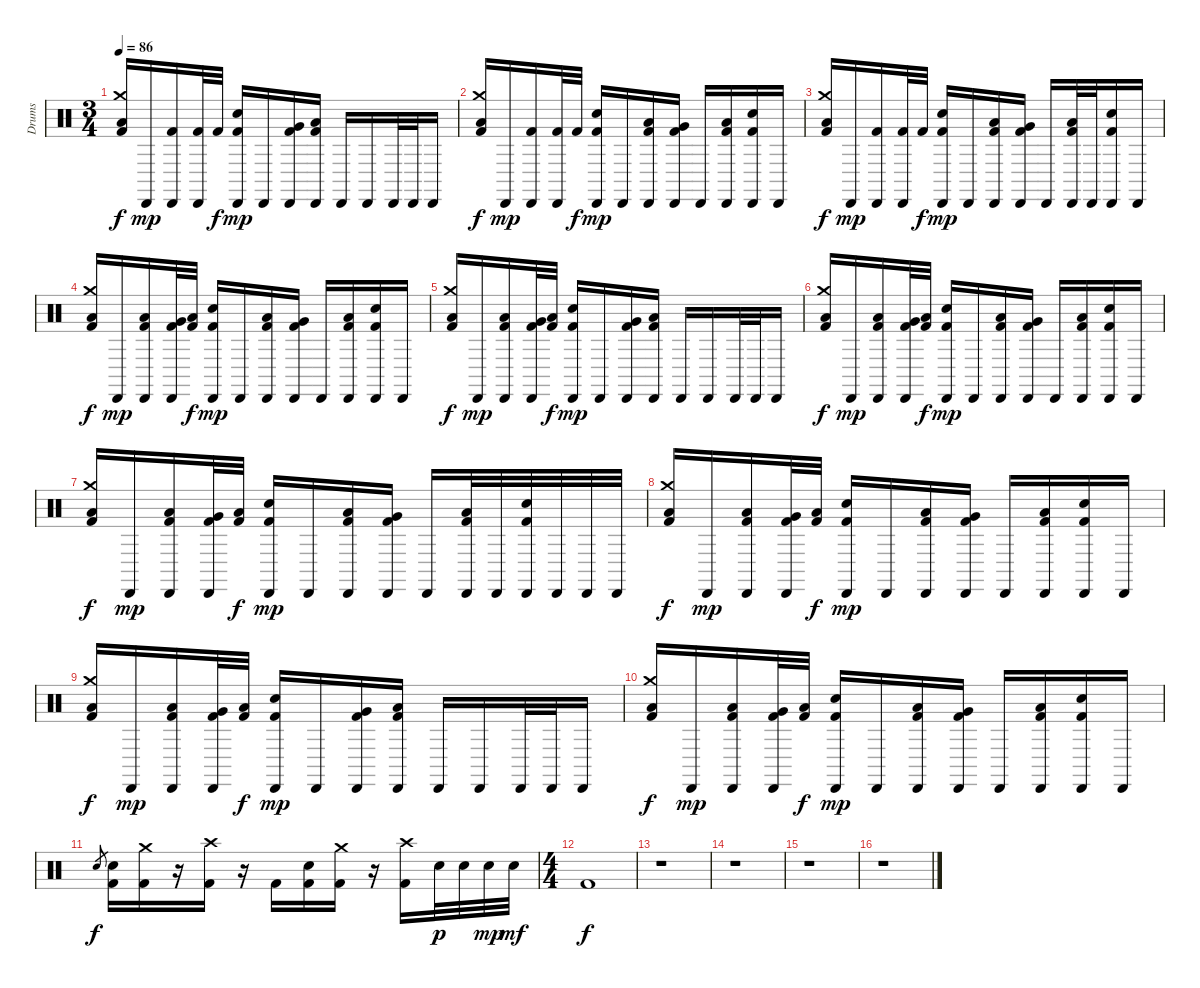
\track ("Drums" "Drums") {instrument percussion}
\staff {score}
\articulation defaults
\ts (3 4)
\tempo 86
\clef neutral
\ks c
("Crash medium (hit)" "Low Floor Tom (hit)" "Kick (hit) 2").16{dy f} "Cabasa (hit)".16{dy mp} ("Cabasa (hit)" "Kick (hit) 2").16 ("Cabasa (hit)" "Kick (hit) 2").32 "Kick (hit) 2".32{dy f} ("Cabasa (hit)" "Electric Snare (hit)" "Kick (hit) 2").16{dy mp} "Cabasa (hit)".16 ("Cabasa (hit)" "Very Low Tom (hit)" "Kick (hit) 2").16 ("Cabasa (hit)" "Low Floor Tom (hit)" "Kick (hit) 2").16 "Cabasa (hit)".16 "Cabasa (hit)".16 "Cabasa (hit)".32 "Cabasa (hit)".32 "Cabasa (hit)".16 |
("Crash medium (hit)" "Low Floor Tom (hit)" "Kick (hit) 2").16{dy f} "Cabasa (hit)".16{dy mp} ("Cabasa (hit)" "Kick (hit) 2").16 ("Cabasa (hit)" "Kick (hit) 2").32 "Kick (hit) 2".32{dy f} ("Cabasa (hit)" "Electric Snare (hit)" "Kick (hit) 2").16{dy mp} "Cabasa (hit)".16 ("Cabasa (hit)" "Low Tom (hit)" "Kick (hit) 2").16 ("Cabasa (hit)" "Very Low Tom (hit)" "Kick (hit) 2").16 "Cabasa (hit)".16 ("Cabasa (hit)" "Low Floor Tom (hit)" "Kick (hit) 2").16 ("Cabasa (hit)" "Electric Snare (hit)" "Kick (hit) 2").16 "Cabasa (hit)".16 |
("Crash medium (hit)" "Low Floor Tom (hit)" "Kick (hit) 2").16{dy f} "Cabasa (hit)".16{dy mp} ("Cabasa (hit)" "Kick (hit) 2").16 ("Cabasa (hit)" "Kick (hit) 2").32 "Kick (hit) 2".32{dy f} ("Cabasa (hit)" "Electric Snare (hit)" "Kick (hit) 2").16{dy mp} "Cabasa (hit)".16 ("Cabasa (hit)" "Low Tom (hit)" "Kick (hit) 2").16 ("Cabasa (hit)" "Very Low Tom (hit)" "Kick (hit) 2").16 "Cabasa (hit)".16 ("Cabasa (hit)" "Low Floor Tom (hit)" "Kick (hit) 2").32 "Cabasa (hit)".32 ("Cabasa (hit)" "Electric Snare (hit)" "Kick (hit) 2").16 "Cabasa (hit)".16 |
("Crash medium (hit)" "Low Floor Tom (hit)" "Kick (hit) 2").16{dy f} "Cabasa (hit)".16{dy mp} ("Cabasa (hit)" "Low Tom (hit)" "Kick (hit) 2").16 ("Cabasa (hit)" "Very Low Tom (hit)" "Kick (hit) 2").32 ("Low Floor Tom (hit)" "Kick (hit) 2").32{dy f} ("Cabasa (hit)" "Electric Snare (hit)" "Kick (hit) 2").16{dy mp} "Cabasa (hit)".16 ("Cabasa (hit)" "Low Tom (hit)" "Kick (hit) 2").16 ("Cabasa (hit)" "Very Low Tom (hit)" "Kick (hit) 2").16 "Cabasa (hit)".16 ("Cabasa (hit)" "Low Floor Tom (hit)" "Kick (hit) 2").16 ("Cabasa (hit)" "Electric Snare (hit)" "Kick (hit) 2").16 "Cabasa (hit)".16 |
("Crash medium (hit)" "Low Floor Tom (hit)" "Kick (hit) 2").16{dy f} "Cabasa (hit)".16{dy mp} ("Cabasa (hit)" "Low Tom (hit)" "Kick (hit) 2").16 ("Cabasa (hit)" "Very Low Tom (hit)" "Kick (hit) 2").32 ("Low Floor Tom (hit)" "Kick (hit) 2").32{dy f} ("Cabasa (hit)" "Electric Snare (hit)" "Kick (hit) 2").16{dy mp} "Cabasa (hit)".16 ("Cabasa (hit)" "Very Low Tom (hit)" "Kick (hit) 2").16 ("Cabasa (hit)" "Low Floor Tom (hit)" "Kick (hit) 2").16 "Cabasa (hit)".16 "Cabasa (hit)".16 "Cabasa (hit)".32 "Cabasa (hit)".32 "Cabasa (hit)".16 |
("Crash medium (hit)" "Low Floor Tom (hit)" "Kick (hit) 2").16{dy f} "Cabasa (hit)".16{dy mp} ("Cabasa (hit)" "Low Tom (hit)" "Kick (hit) 2").16 ("Cabasa (hit)" "Very Low Tom (hit)" "Kick (hit) 2").32 ("Low Floor Tom (hit)" "Kick (hit) 2").32{dy f} ("Cabasa (hit)" "Electric Snare (hit)" "Kick (hit) 2").16{dy mp} "Cabasa (hit)".16 ("Cabasa (hit)" "Low Tom (hit)" "Kick (hit) 2").16 ("Cabasa (hit)" "Very Low Tom (hit)" "Kick (hit) 2").16 "Cabasa (hit)".16 ("Cabasa (hit)" "Low Floor Tom (hit)" "Kick (hit) 2").16 ("Cabasa (hit)" "Electric Snare (hit)" "Kick (hit) 2").16 "Cabasa (hit)".16 |
("Crash medium (hit)" "Low Floor Tom (hit)" "Kick (hit) 2").16{dy f} "Cabasa (hit)".16{dy mp} ("Cabasa (hit)" "Low Tom (hit)" "Kick (hit) 2").16 ("Cabasa (hit)" "Very Low Tom (hit)" "Kick (hit) 2").32 ("Low Floor Tom (hit)" "Kick (hit) 2").32{dy f} ("Cabasa (hit)" "Electric Snare (hit)" "Kick (hit) 2").16{dy mp} "Cabasa (hit)".16 ("Cabasa (hit)" "Low Tom (hit)" "Kick (hit) 2").16 ("Cabasa (hit)" "Very Low Tom (hit)" "Kick (hit) 2").16 "Cabasa (hit)".16 ("Cabasa (hit)" "Low Floor Tom (hit)" "Kick (hit) 2").32 "Cabasa (hit)".32 ("Cabasa (hit)" "Electric Snare (hit)" "Kick (hit) 2").32 "Cabasa (hit)".32 "Cabasa (hit)".32 "Cabasa (hit)".32 |
("Crash medium (hit)" "Low Floor Tom (hit)" "Kick (hit) 2").16{dy f} "Cabasa (hit)".16{dy mp} ("Cabasa (hit)" "Low Tom (hit)" "Kick (hit) 2").16 ("Cabasa (hit)" "Very Low Tom (hit)" "Kick (hit) 2").32 ("Low Floor Tom (hit)" "Kick (hit) 2").32{dy f} ("Cabasa (hit)" "Electric Snare (hit)" "Kick (hit) 2").16{dy mp} "Cabasa (hit)".16 ("Cabasa (hit)" "Low Tom (hit)" "Kick (hit) 2").16 ("Cabasa (hit)" "Very Low Tom (hit)" "Kick (hit) 2").16 "Cabasa (hit)".16 ("Cabasa (hit)" "Low Floor Tom (hit)" "Kick (hit) 2").16 ("Cabasa (hit)" "Electric Snare (hit)" "Kick (hit) 2").16 "Cabasa (hit)".16 |
("Crash medium (hit)" "Low Floor Tom (hit)" "Kick (hit) 2").16{dy f} "Cabasa (hit)".16{dy mp} ("Cabasa (hit)" "Low Tom (hit)" "Kick (hit) 2").16 ("Cabasa (hit)" "Very Low Tom (hit)" "Kick (hit) 2").32 ("Low Floor Tom (hit)" "Kick (hit) 2").32{dy f} ("Cabasa (hit)" "Electric Snare (hit)" "Kick (hit) 2").16{dy mp} "Cabasa (hit)".16 ("Cabasa (hit)" "Very Low Tom (hit)" "Kick (hit) 2").16 ("Cabasa (hit)" "Low Floor Tom (hit)" "Kick (hit) 2").16 "Cabasa (hit)".16 "Cabasa (hit)".16 "Cabasa (hit)".32 "Cabasa (hit)".32 "Cabasa (hit)".16 |
("Crash medium (hit)" "Low Floor Tom (hit)" "Kick (hit) 2").16{dy f} "Cabasa (hit)".16{dy mp} ("Cabasa (hit)" "Low Tom (hit)" "Kick (hit) 2").16 ("Cabasa (hit)" "Very Low Tom (hit)" "Kick (hit) 2").32 ("Low Floor Tom (hit)" "Kick (hit) 2").32{dy f} ("Cabasa (hit)" "Electric Snare (hit)" "Kick (hit) 2").16{dy mp} "Cabasa (hit)".16 ("Cabasa (hit)" "Low Tom (hit)" "Kick (hit) 2").16 ("Cabasa (hit)" "Very Low Tom (hit)" "Kick (hit) 2").16 "Cabasa (hit)".16 ("Cabasa (hit)" "Low Floor Tom (hit)" "Kick (hit) 2").16 ("Cabasa (hit)" "Electric Snare (hit)" "Kick (hit) 2").16 "Cabasa (hit)".16 |
"Electric Snare (hit)".8{gr dy f} ("Electric Snare (hit)" "Kick (hit) 2").16 ("Crash medium (hit)" "Kick (hit) 2").16 r.16 ("Crash high (hit)" "Kick (hit) 2").16 r.16 "Kick (hit) 2".16 ("Electric Snare (hit)" "Kick (hit) 2").16 ("Crash medium (hit)" "Kick (hit) 2").16 r.16 ("Crash high (hit)" "Kick (hit) 2").16 "Electric Snare (hit)".32{dy p} "Electric Snare (hit)".32 "Electric Snare (hit)".32{dy mp} "Electric Snare (hit)".32{dy mf} |
\ts (4 4)
"Kick (hit) 2".1{dy f} |
r.1 |
r.1 |
r.1 |
r.1
